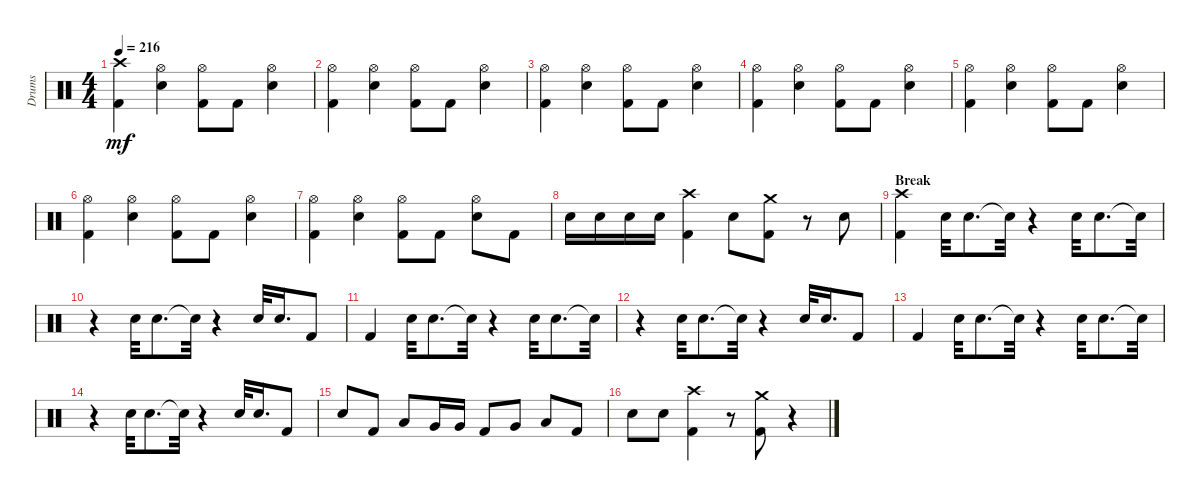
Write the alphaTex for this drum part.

\track ("Drums" "Drums") {instrument percussion}
\staff {score}
\articulation defaults
\ts (4 4)
\tempo 216
\clef neutral
\ks aminor
("Crash high (hit)" "Kick (hit) 2").4{dy mf} ("Snare (hit) 2" "Hi-Hat (open)").4 ("Hi-Hat (open)" "Kick (hit) 2").8 "Kick (hit) 2".8 ("Snare (hit) 2" "Hi-Hat (open)").4 |
("Kick (hit) 2" "Hi-Hat (open)").4 ("Hi-Hat (open)" "Snare (hit) 2").4 ("Kick (hit) 2" "Hi-Hat (open)").8 "Kick (hit) 2".8 ("Snare (hit) 2" "Hi-Hat (open)").4 |
("Hi-Hat (open)" "Kick (hit) 2").4 ("Hi-Hat (open)" "Snare (hit) 2").4 ("Hi-Hat (open)" "Kick (hit) 2").8 "Kick (hit) 2".8 ("Hi-Hat (open)" "Snare (hit) 2").4 |
("Kick (hit) 2" "Hi-Hat (open)").4 ("Snare (hit) 2" "Hi-Hat (open)").4 ("Hi-Hat (open)" "Kick (hit) 2").8 "Kick (hit) 2".8 ("Snare (hit) 2" "Hi-Hat (open)").4 |
("Kick (hit) 2" "Hi-Hat (open)").4 ("Snare (hit) 2" "Hi-Hat (open)").4 ("Kick (hit) 2" "Hi-Hat (open)").8 "Kick (hit) 2".8 ("Snare (hit) 2" "Hi-Hat (open)").4 |
("Kick (hit) 2" "Hi-Hat (open)").4 ("Hi-Hat (open)" "Snare (hit) 2").4 ("Kick (hit) 2" "Hi-Hat (open)").8 "Kick (hit) 2".8 ("Snare (hit) 2" "Hi-Hat (open)").4 |
("Hi-Hat (open)" "Kick (hit) 2").4 ("Snare (hit) 2" "Hi-Hat (open)").4 ("Kick (hit) 2" "Hi-Hat (open)").8 "Kick (hit) 2".8 ("Snare (hit) 2" "Hi-Hat (open)").8 "Kick (hit) 2".8 |
"Snare (hit) 2".16 "Snare (hit) 2".16 "Snare (hit) 2".16 "Snare (hit) 2".16 ("Kick (hit) 2" "Crash high (hit)").4 "Snare (hit) 2".8 ("Kick (hit) 2" "Crash medium (hit)").8 r.8 "Snare (hit) 2".8 |
\section ("" "Break")
("Kick (hit) 2" "Crash high (hit)").4 "Snare (hit) 2".32 "Snare (hit) 2".8{d} "Snare (hit) 2"{t}.32 r.4 "Snare (hit) 2".32 "Snare (hit) 2".8{d} "Snare (hit) 2"{t}.32 |
r.4 "Snare (hit) 2".32 "Snare (hit) 2".8{d} "Snare (hit) 2"{t}.32 r.4 "Snare (hit) 2".32 "Snare (hit) 2".16{d} "Kick (hit) 2".8 |
"Kick (hit) 2".4 "Snare (hit) 2".32 "Snare (hit) 2".8{d} "Snare (hit) 2"{t}.32 r.4 "Snare (hit) 2".32 "Snare (hit) 2".8{d} "Snare (hit) 2"{t}.32 |
r.4 "Snare (hit) 2".32 "Snare (hit) 2".8{d} "Snare (hit) 2"{t}.32 r.4 "Snare (hit) 2".32 "Snare (hit) 2".16{d} "Kick (hit) 2".8 |
"Kick (hit) 2".4 "Snare (hit) 2".32 "Snare (hit) 2".8{d} "Snare (hit) 2"{t}.32 r.4 "Snare (hit) 2".32 "Snare (hit) 2".8{d} "Snare (hit) 2"{t}.32 |
r.4 "Snare (hit) 2".32 "Snare (hit) 2".8{d} "Snare (hit) 2"{t}.32 r.4 "Snare (hit) 2".32 "Snare (hit) 2".16{d} "Kick (hit) 2".8 |
"Snare (hit) 2".8 "Kick (hit) 2".8 "Low Tom (hit)".8 "Very Low Tom (hit)".16 "Very Low Tom (hit)".16 "Kick (hit) 2".8 "Very Low Tom (hit)".8 "Low Floor Tom (hit)".8 "Kick (hit) 2".8 |
"Snare (hit) 2".8 "Snare (hit) 2".8 ("Crash high (hit)" "Kick (hit) 2").4 r.8 ("Kick (hit) 2" "Crash medium (hit)").8 r.4
